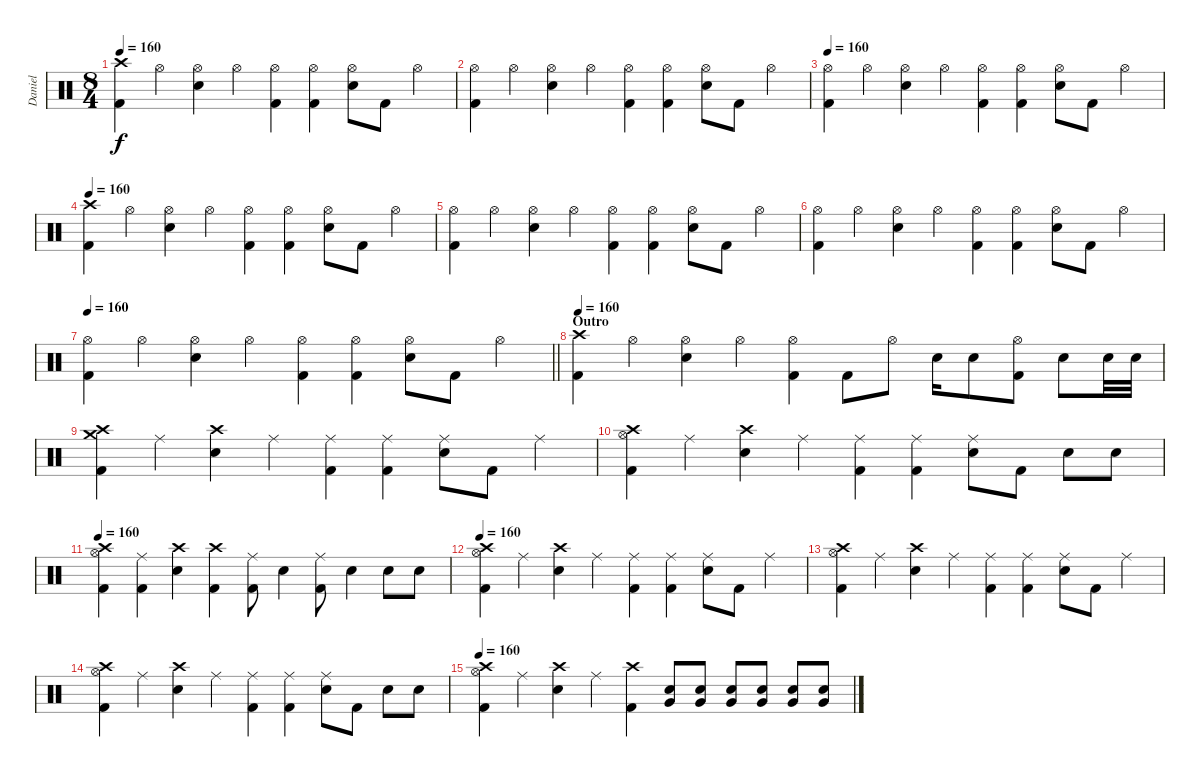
\track ("Daniel" "Daniel") {instrument percussion}
\staff {score}
\articulation defaults
\ts (8 4)
\tempo 160
\clef neutral
\ks c
("Crash high (hit)" "Kick (hit) 2").4{dy f} "Hi-Hat (open)".4 ("Hi-Hat (open)" "Snare (hit) 2").4 "Hi-Hat (open)".4 ("Hi-Hat (open)" "Kick (hit) 2").4 ("Hi-Hat (open)" "Kick (hit) 2").4 ("Hi-Hat (open)" "Snare (hit) 2").8 "Kick (hit) 2".8 "Hi-Hat (open)".4 |
("Hi-Hat (open)" "Kick (hit) 2").4 "Hi-Hat (open)".4 ("Hi-Hat (open)" "Snare (hit) 2").4 "Hi-Hat (open)".4 ("Hi-Hat (open)" "Kick (hit) 2").4 ("Hi-Hat (open)" "Kick (hit) 2").4 ("Hi-Hat (open)" "Snare (hit) 2").8 "Kick (hit) 2".8 "Hi-Hat (open)".4 |
\tempo 160
("Hi-Hat (open)" "Kick (hit) 2").4 "Hi-Hat (open)".4 ("Hi-Hat (open)" "Snare (hit) 2").4 "Hi-Hat (open)".4 ("Hi-Hat (open)" "Kick (hit) 2").4 ("Hi-Hat (open)" "Kick (hit) 2").4 ("Hi-Hat (open)" "Snare (hit) 2").8 "Kick (hit) 2".8 "Hi-Hat (open)".4 |
\tempo 160
("Crash high (hit)" "Kick (hit) 2").4 "Hi-Hat (open)".4 ("Hi-Hat (open)" "Snare (hit) 2").4 "Hi-Hat (open)".4 ("Hi-Hat (open)" "Kick (hit) 2").4 ("Hi-Hat (open)" "Kick (hit) 2").4 ("Hi-Hat (open)" "Snare (hit) 2").8 "Kick (hit) 2".8 "Hi-Hat (open)".4 |
("Hi-Hat (open)" "Kick (hit) 2").4 "Hi-Hat (open)".4 ("Hi-Hat (open)" "Snare (hit) 2").4 "Hi-Hat (open)".4 ("Hi-Hat (open)" "Kick (hit) 2").4 ("Hi-Hat (open)" "Kick (hit) 2").4 ("Hi-Hat (open)" "Snare (hit) 2").8 "Kick (hit) 2".8 "Hi-Hat (open)".4 |
("Hi-Hat (open)" "Kick (hit) 2").4 "Hi-Hat (open)".4 ("Hi-Hat (open)" "Snare (hit) 2").4 "Hi-Hat (open)".4 ("Hi-Hat (open)" "Kick (hit) 2").4 ("Hi-Hat (open)" "Kick (hit) 2").4 ("Hi-Hat (open)" "Snare (hit) 2").8 "Kick (hit) 2".8 "Hi-Hat (open)".4 |
\tempo 160
\barLineRight lightlight
("Hi-Hat (open)" "Kick (hit) 2").4 "Hi-Hat (open)".4 ("Hi-Hat (open)" "Snare (hit) 2").4 "Hi-Hat (open)".4 ("Hi-Hat (open)" "Kick (hit) 2").4 ("Hi-Hat (open)" "Kick (hit) 2").4 ("Hi-Hat (open)" "Snare (hit) 2").8 "Kick (hit) 2".8 "Hi-Hat (open)".4 |
\section ("" "Outro")
\tempo 160
("Crash high (hit)" "Kick (hit) 2").4 "Hi-Hat (open)".4 ("Hi-Hat (open)" "Snare (hit) 2").4 "Hi-Hat (open)".4 ("Hi-Hat (open)" "Kick (hit) 2").4 "Kick (hit) 2".8 "Hi-Hat (open)".8 "Snare (hit) 2".16 "Snare (hit) 2".8 ("Hi-Hat (open)" "Kick (hit) 2").8 "Snare (hit) 2".8 "Snare (hit) 2".32 "Snare (hit) 2".32 |
("Crash high (hit)" "Crash medium (hit)" "Kick (hit) 2").4 "Ride (middle)".4 ("Crash high (hit)" "Snare (hit) 2").4 "Ride (middle)".4 ("Ride (middle)" "Kick (hit) 2").4 ("Ride (middle)" "Kick (hit) 2").4 ("Ride (middle)" "Snare (hit) 2").8 "Kick (hit) 2".8 "Ride (middle)".4 |
("Crash high (hit)" "Hi-Hat (open)" "Kick (hit) 2").4 "Ride (middle)".4 ("Crash high (hit)" "Snare (hit) 2").4 "Ride (middle)".4 ("Ride (middle)" "Kick (hit) 2").4 ("Ride (middle)" "Kick (hit) 2").4 ("Ride (middle)" "Snare (hit) 2").8 "Kick (hit) 2".8 "Snare (hit) 2".8 "Snare (hit) 2".8 |
\tempo 160
("Crash high (hit)" "Hi-Hat (open)" "Kick (hit) 2").4 ("Ride (middle)" "Kick (hit) 2").4 ("Crash high (hit)" "Snare (hit) 2").4 ("Crash high (hit)" "Kick (hit) 2").4 ("Ride (middle)" "Kick (hit) 2").8 "Snare (hit) 2".4 ("Ride (middle)" "Kick (hit) 2").8 "Snare (hit) 2".4 "Snare (hit) 2".8 "Snare (hit) 2".8 |
\tempo 160
("Crash high (hit)" "Hi-Hat (open)" "Kick (hit) 2").4 "Ride (middle)".4 ("Crash high (hit)" "Snare (hit) 2").4 "Ride (middle)".4 ("Ride (middle)" "Kick (hit) 2").4 ("Ride (middle)" "Kick (hit) 2").4 ("Ride (middle)" "Snare (hit) 2").8 "Kick (hit) 2".8 "Ride (middle)".4 |
("Crash high (hit)" "Hi-Hat (open)" "Kick (hit) 2").4 "Ride (middle)".4 ("Crash high (hit)" "Snare (hit) 2").4 "Ride (middle)".4 ("Ride (middle)" "Kick (hit) 2").4 ("Ride (middle)" "Kick (hit) 2").4 ("Ride (middle)" "Snare (hit) 2").8 "Kick (hit) 2".8 "Ride (middle)".4 |
("Crash high (hit)" "Hi-Hat (open)" "Kick (hit) 2").4 "Ride (middle)".4 ("Crash high (hit)" "Snare (hit) 2").4 "Ride (middle)".4 ("Ride (middle)" "Kick (hit) 2").4 ("Ride (middle)" "Kick (hit) 2").4 ("Ride (middle)" "Snare (hit) 2").8 "Kick (hit) 2".8 "Snare (hit) 2".8 "Snare (hit) 2".8 |
\tempo 160
("Crash high (hit)" "Hi-Hat (open)" "Kick (hit) 2").4 "Ride (middle)".4 ("Crash high (hit)" "Snare (hit) 2").4 "Ride (middle)".4 ("Crash high (hit)" "Kick (hit) 2").4 ("Snare (hit) 2" "Very Low Tom (hit)").8{volume 6} ("Snare (hit) 2" "Very Low Tom (hit)").8{volume 16} ("Snare (hit) 2" "Very Low Tom (hit)").8 ("Snare (hit) 2" "Very Low Tom (hit)").8 ("Snare (hit) 2" "Very Low Tom (hit)").8 ("Snare (hit) 2" "Very Low Tom (hit)").8
